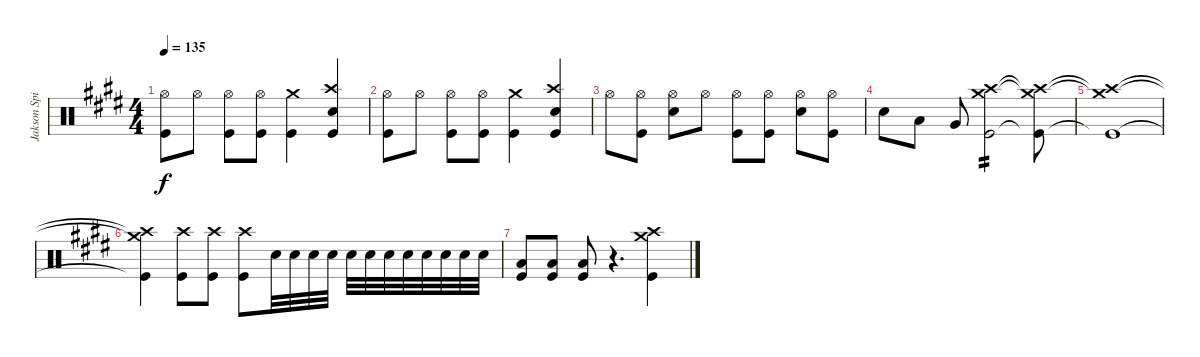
\track ("Jakson Spires Drums" "Jakson Spi") {instrument percussion}
\staff {score}
\articulation defaults
\ts (4 4)
\tempo 135
\clef neutral
\ks e
("Hi-Hat (open)" "Kick (hit)").8{dy f} "Hi-Hat (open)".8 ("Hi-Hat (open)" "Kick (hit)").8 ("Hi-Hat (open)" "Kick (hit)").8 ("Crash medium (hit)" "Kick (hit)").4 ("Crash high (hit)" "Snare (hit) 2" "Kick (hit)").4 |
("Hi-Hat (open)" "Kick (hit)").8 "Hi-Hat (open)".8 ("Hi-Hat (open)" "Kick (hit)").8 ("Hi-Hat (open)" "Kick (hit)").8 ("Crash medium (hit)" "Kick (hit)").4 ("Crash high (hit)" "Snare (hit) 2" "Kick (hit)").4 |
"Hi-Hat (open)".8 ("Hi-Hat (open)" "Kick (hit)").8 ("Hi-Hat (open)" "Snare (hit) 2").8 "Hi-Hat (open)".8 ("Hi-Hat (open)" "Kick (hit)").8 ("Hi-Hat (open)" "Kick (hit)").8 ("Hi-Hat (open)" "Snare (hit) 2").8 ("Hi-Hat (open)" "Kick (hit)").8 |
"Snare (hit) 2".8 "Low Tom (hit)".8 "Very Low Tom (hit)".8 ("Crash high (hit)" "Crash medium (hit)" "Kick (hit)").2{tp 2} ("Crash high (hit)"{t} "Crash medium (hit)"{t} "Kick (hit)"{t}).8 |
("Crash high (hit)"{t} "Crash medium (hit)"{t} "Kick (hit)"{t}).1 |
("Crash high (hit)"{t} "Crash medium (hit)"{t} "Kick (hit)"{t}).4 ("Crash high (hit)" "Kick (hit)").8 ("Crash high (hit)" "Kick (hit)").8 ("Crash high (hit)" "Kick (hit)").8 "Snare (hit) 2".32 "Snare (hit) 2".32 "Snare (hit) 2".32 "Snare (hit) 2".32 "Snare (hit) 2".32 "Snare (hit) 2".32 "Snare (hit) 2".32 "Snare (hit) 2".32 "Snare (hit) 2".32 "Snare (hit) 2".32 "Snare (hit) 2".32 "Snare (hit) 2".32 |
("Low Tom (hit)" "Kick (hit)").8 ("Low Tom (hit)" "Kick (hit)").8 ("Low Tom (hit)" "Kick (hit)").8 r.4{d} ("Crash high (hit)" "Crash medium (hit)" "Kick (hit)").4
